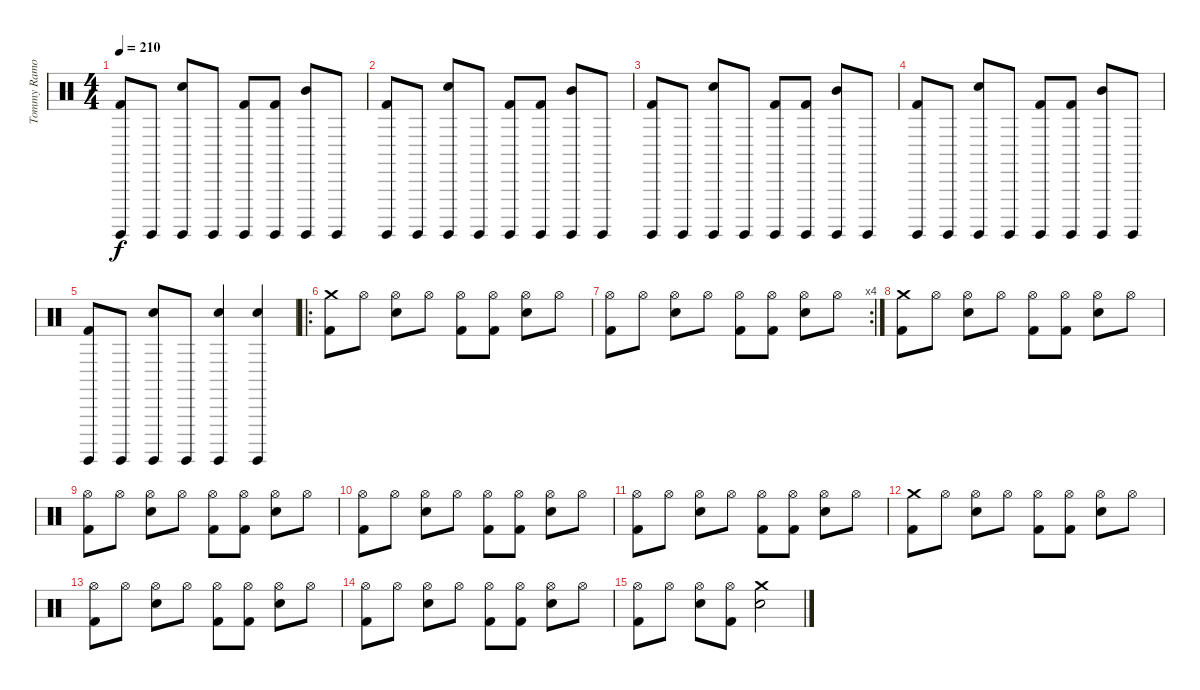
\track ("Tommy Ramone" "Tommy Ramo") {instrument percussion}
\staff {score}
\articulation defaults
\ts (4 4)
\tempo 210
\clef neutral
\ks c
("Surdo (hit)" "Kick (hit) 2").8{dy f} "Surdo (hit)".8 ("Surdo (hit)" "Snare (hit) 2").8 "Surdo (hit)".8 ("Surdo (hit)" "Kick (hit) 2").8 ("Surdo (hit)" "Kick (hit) 2").8 ("Surdo (hit)" "Mid Tom (hit)").8 "Surdo (hit)".8 |
("Surdo (hit)" "Kick (hit) 2").8 "Surdo (hit)".8 ("Surdo (hit)" "Snare (hit) 2").8 "Surdo (hit)".8 ("Surdo (hit)" "Kick (hit) 2").8 ("Surdo (hit)" "Kick (hit) 2").8 ("Surdo (hit)" "Mid Tom (hit)").8 "Surdo (hit)".8 |
("Surdo (hit)" "Kick (hit) 2").8 "Surdo (hit)".8 ("Surdo (hit)" "Snare (hit) 2").8 "Surdo (hit)".8 ("Surdo (hit)" "Kick (hit) 2").8 ("Surdo (hit)" "Kick (hit) 2").8 ("Surdo (hit)" "Mid Tom (hit)").8 "Surdo (hit)".8 |
("Surdo (hit)" "Kick (hit) 2").8 "Surdo (hit)".8 ("Surdo (hit)" "Snare (hit) 2").8 "Surdo (hit)".8 ("Surdo (hit)" "Kick (hit) 2").8 ("Surdo (hit)" "Kick (hit) 2").8 ("Surdo (hit)" "Mid Tom (hit)").8 "Surdo (hit)".8 |
("Surdo (hit)" "Kick (hit) 2").8 "Surdo (hit)".8 ("Surdo (hit)" "Snare (hit) 2").8 "Surdo (hit)".8 ("Surdo (hit)" "Snare (hit) 2").4{bd 120} ("Surdo (hit)" "Snare (hit) 2").4{bd 120} |
\ro
("Crash medium (hit)" "Kick (hit) 2").8 "Hi-Hat (open)".8 ("Hi-Hat (open)" "Snare (hit) 2").8 "Hi-Hat (open)".8 ("Hi-Hat (open)" "Kick (hit) 2").8 ("Hi-Hat (open)" "Kick (hit) 2").8 ("Hi-Hat (open)" "Snare (hit) 2").8 "Hi-Hat (open)".8 |
\rc 4
("Hi-Hat (open)" "Kick (hit) 2").8 "Hi-Hat (open)".8 ("Hi-Hat (open)" "Snare (hit) 2").8 "Hi-Hat (open)".8 ("Hi-Hat (open)" "Kick (hit) 2").8 ("Hi-Hat (open)" "Kick (hit) 2").8 ("Hi-Hat (open)" "Snare (hit) 2").8 "Hi-Hat (open)".8 |
("Crash medium (hit)" "Kick (hit) 2").8 "Hi-Hat (open)".8 ("Hi-Hat (open)" "Snare (hit) 2").8 "Hi-Hat (open)".8 ("Hi-Hat (open)" "Kick (hit) 2").8 ("Hi-Hat (open)" "Kick (hit) 2").8 ("Hi-Hat (open)" "Snare (hit) 2").8 "Hi-Hat (open)".8 |
("Hi-Hat (open)" "Kick (hit) 2").8 "Hi-Hat (open)".8 ("Hi-Hat (open)" "Snare (hit) 2").8 "Hi-Hat (open)".8 ("Hi-Hat (open)" "Kick (hit) 2").8 ("Hi-Hat (open)" "Kick (hit) 2").8 ("Hi-Hat (open)" "Snare (hit) 2").8 "Hi-Hat (open)".8 |
("Hi-Hat (open)" "Kick (hit) 2").8 "Hi-Hat (open)".8 ("Hi-Hat (open)" "Snare (hit) 2").8 "Hi-Hat (open)".8 ("Hi-Hat (open)" "Kick (hit) 2").8 ("Hi-Hat (open)" "Kick (hit) 2").8 ("Hi-Hat (open)" "Snare (hit) 2").8 "Hi-Hat (open)".8 |
("Hi-Hat (open)" "Kick (hit) 2").8 "Hi-Hat (open)".8 ("Hi-Hat (open)" "Snare (hit) 2").8 "Hi-Hat (open)".8 ("Hi-Hat (open)" "Kick (hit) 2").8 ("Hi-Hat (open)" "Kick (hit) 2").8 ("Hi-Hat (open)" "Snare (hit) 2").8 "Hi-Hat (open)".8 |
("Crash medium (hit)" "Kick (hit) 2").8 "Hi-Hat (open)".8 ("Hi-Hat (open)" "Snare (hit) 2").8 "Hi-Hat (open)".8 ("Hi-Hat (open)" "Kick (hit) 2").8 ("Hi-Hat (open)" "Kick (hit) 2").8 ("Hi-Hat (open)" "Snare (hit) 2").8 "Hi-Hat (open)".8 |
("Hi-Hat (open)" "Kick (hit) 2").8 "Hi-Hat (open)".8 ("Hi-Hat (open)" "Snare (hit) 2").8 "Hi-Hat (open)".8 ("Hi-Hat (open)" "Kick (hit) 2").8 ("Hi-Hat (open)" "Kick (hit) 2").8 ("Hi-Hat (open)" "Snare (hit) 2").8 "Hi-Hat (open)".8 |
("Hi-Hat (open)" "Kick (hit) 2").8 "Hi-Hat (open)".8 ("Hi-Hat (open)" "Snare (hit) 2").8 "Hi-Hat (open)".8 ("Hi-Hat (open)" "Kick (hit) 2").8 ("Hi-Hat (open)" "Kick (hit) 2").8 ("Hi-Hat (open)" "Snare (hit) 2").8 "Hi-Hat (open)".8 |
("Hi-Hat (open)" "Kick (hit) 2").8 "Hi-Hat (open)".8 ("Hi-Hat (open)" "Snare (hit) 2").8 ("Hi-Hat (open)" "Kick (hit) 2").8 ("Crash medium (hit)" "Snare (hit) 2").2
